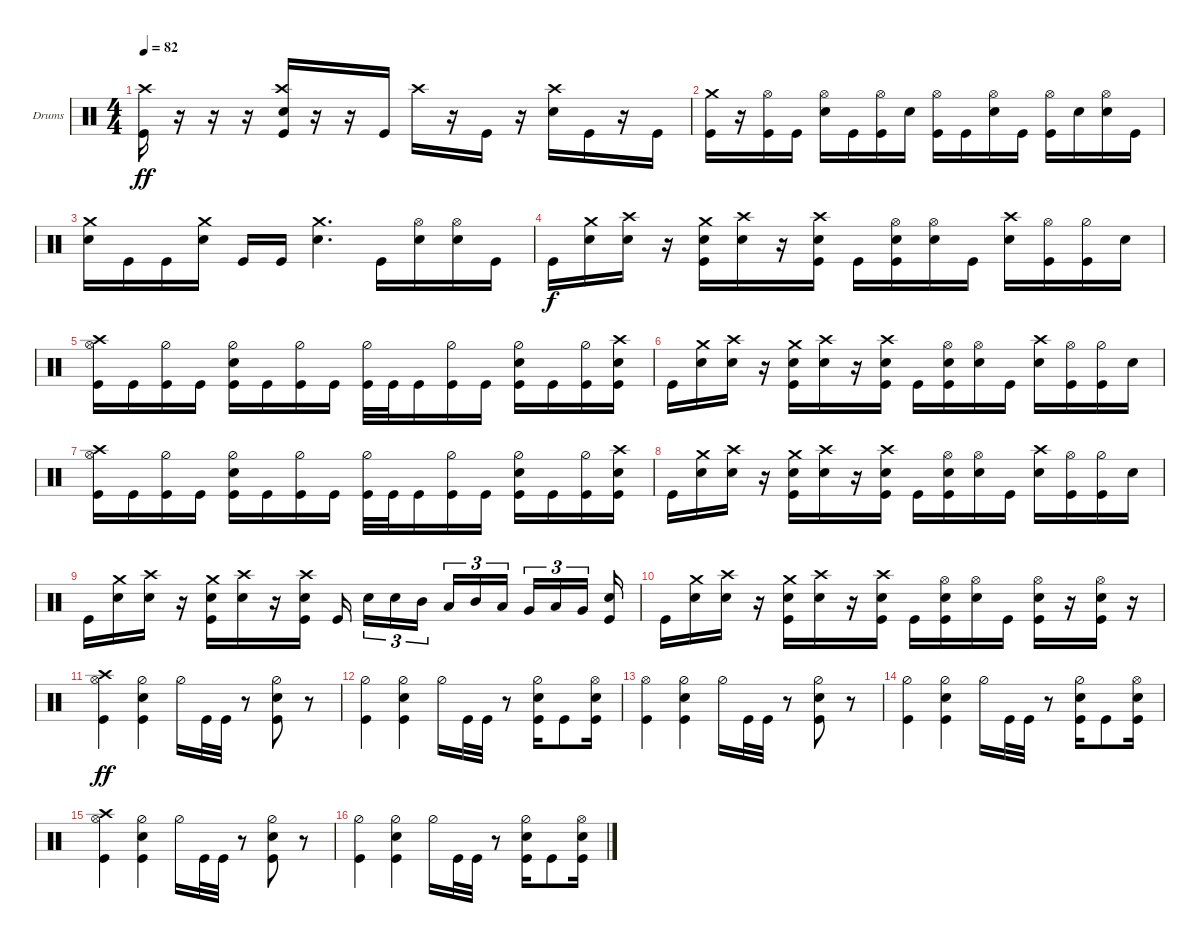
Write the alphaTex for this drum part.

\bracketExtendMode groupsimilarinstruments
\firstSystemTrackNameOrientation horizontal
\otherSystemsTrackNameOrientation horizontal
\track ("Kaleb - Drums" "Drums") {instrument percussion}
\staff {score}
\articulation defaults
\ts (4 4)
\tempo 82
\clef neutral
\ks c
("Kick (hit)" "Crash high (hit)").16{dy ff} r.16 r.16 r.16 ("Kick (hit)" "Crash high (hit)" "Snare (hit) 2").16 r.16 r.16 "Kick (hit)".16 "Crash high (hit)".16 r.16 "Kick (hit)".16 r.16 ("Crash high (hit)" "Snare (hit) 2").16 "Kick (hit)".16 r.16 "Kick (hit)".16 |
("Crash medium (hit)" "Kick (hit)").16 r.16 ("Kick (hit)" "Hi-Hat (open)").16 "Kick (hit)".16 ("Snare (hit) 2" "Hi-Hat (open)").16 "Kick (hit)".16 ("Kick (hit)" "Hi-Hat (open)").16 "Snare (hit) 2".16 ("Kick (hit)" "Hi-Hat (open)").16 "Kick (hit)".16 ("Snare (hit) 2" "Hi-Hat (open)").16 "Kick (hit)".16 ("Kick (hit)" "Hi-Hat (open)").16 "Snare (hit) 2".16 ("Snare (hit) 2" "Hi-Hat (open)").16 "Kick (hit)".16 |
("Crash medium (hit)" "Snare (hit) 2").16 "Kick (hit)".16 "Kick (hit)".16 ("Crash medium (hit)" "Snare (hit) 2").16 "Kick (hit)".16 "Kick (hit)".16 ("Crash medium (hit)" "Snare (hit) 2").4{d} "Kick (hit)".16 ("Snare (hit) 2" "Hi-Hat (open)").16 ("Snare (hit) 2" "Hi-Hat (open)").16 "Kick (hit)".16 |
"Kick (hit)".16{dy f} ("Snare (hit) 2" "Crash medium (hit)").16 ("Snare (hit) 2" "Crash high (hit)").16 r.16 ("Snare (hit) 2" "Crash medium (hit)" "Kick (hit)").16 ("Snare (hit) 2" "Crash high (hit)").16 r.16 ("Snare (hit) 2" "Crash high (hit)" "Kick (hit)").16 "Kick (hit)".16 ("Snare (hit) 2" "Hi-Hat (open)" "Kick (hit)").16 ("Snare (hit) 2" "Hi-Hat (open)").16 "Kick (hit)".16 ("Snare (hit) 2" "Crash high (hit)").16 ("Kick (hit)" "Hi-Hat (open)").16 ("Kick (hit)" "Hi-Hat (half)").16 "Snare (hit) 2".16 |
("Kick (hit)" "Hi-Hat (open)" "Crash high (hit)").16 "Kick (hit)".16 ("Kick (hit)" "Hi-Hat (half)").16 "Kick (hit)".16 ("Kick (hit)" "Snare (hit) 2" "Hi-Hat (half)").16 "Kick (hit)".16 ("Kick (hit)" "Hi-Hat (half)").16 "Kick (hit)".16 ("Kick (hit)" "Hi-Hat (half)").32 "Kick (hit)".32 "Kick (hit)".16 ("Kick (hit)" "Hi-Hat (half)").16 "Kick (hit)".16 ("Kick (hit)" "Snare (hit) 2" "Hi-Hat (half)").16 "Kick (hit)".16 ("Kick (hit)" "Hi-Hat (half)").16 ("Kick (hit)" "Snare (hit) 2" "Crash high (hit)").16 |
"Kick (hit)".16 ("Snare (hit) 2" "Crash medium (hit)").16 ("Snare (hit) 2" "Crash high (hit)").16 r.16 ("Snare (hit) 2" "Crash medium (hit)" "Kick (hit)").16 ("Snare (hit) 2" "Crash high (hit)").16 r.16 ("Snare (hit) 2" "Crash high (hit)" "Kick (hit)").16 "Kick (hit)".16 ("Snare (hit) 2" "Hi-Hat (open)" "Kick (hit)").16 ("Snare (hit) 2" "Hi-Hat (open)").16 "Kick (hit)".16 ("Snare (hit) 2" "Crash high (hit)").16 ("Kick (hit)" "Hi-Hat (open)").16 ("Kick (hit)" "Hi-Hat (half)").16 "Snare (hit) 2".16 |
("Kick (hit)" "Hi-Hat (open)" "Crash high (hit)").16 "Kick (hit)".16 ("Kick (hit)" "Hi-Hat (half)").16 "Kick (hit)".16 ("Kick (hit)" "Snare (hit) 2" "Hi-Hat (half)").16 "Kick (hit)".16 ("Kick (hit)" "Hi-Hat (half)").16 "Kick (hit)".16 ("Kick (hit)" "Hi-Hat (half)").32 "Kick (hit)".32 "Kick (hit)".16 ("Kick (hit)" "Hi-Hat (half)").16 "Kick (hit)".16 ("Kick (hit)" "Snare (hit) 2" "Hi-Hat (half)").16 "Kick (hit)".16 ("Kick (hit)" "Hi-Hat (half)").16 ("Kick (hit)" "Snare (hit) 2" "Crash high (hit)").16 |
"Kick (hit)".16 ("Snare (hit) 2" "Crash medium (hit)").16 ("Snare (hit) 2" "Crash high (hit)").16 r.16 ("Snare (hit) 2" "Crash medium (hit)" "Kick (hit)").16 ("Snare (hit) 2" "Crash high (hit)").16 r.16 ("Snare (hit) 2" "Crash high (hit)" "Kick (hit)").16 "Kick (hit)".16 ("Snare (hit) 2" "Hi-Hat (open)" "Kick (hit)").16 ("Snare (hit) 2" "Hi-Hat (open)").16 "Kick (hit)".16 ("Snare (hit) 2" "Crash high (hit)").16 ("Kick (hit)" "Hi-Hat (open)").16 ("Kick (hit)" "Hi-Hat (half)").16 "Snare (hit) 2".16 |
"Kick (hit)".16 ("Snare (hit) 2" "Crash medium (hit)").16 ("Snare (hit) 2" "Crash high (hit)").16 r.16 ("Snare (hit) 2" "Crash medium (hit)" "Kick (hit)").16 ("Snare (hit) 2" "Crash high (hit)").16 r.16 ("Snare (hit) 2" "Crash high (hit)" "Kick (hit)").16 "Kick (hit)".16 "Snare (hit) 2".16{tu (3 2)} "Snare (hit) 2".16{tu (3 2)} "Mid Tom (hit)".16{tu (3 2)} "Low Tom (hit)".16{tu (3 2)} "Mid Tom (hit)".16{tu (3 2)} "Low Tom (hit)".16{tu (3 2)} "Very Low Tom (hit)".16{tu (3 2)} "Low Tom (hit)".16{tu (3 2)} "Very Low Tom (hit)".16{tu (3 2)} ("Kick (hit)" "Snare (hit) 2").16 |
"Kick (hit)".16 ("Snare (hit) 2" "Crash medium (hit)").16 ("Snare (hit) 2" "Crash high (hit)").16 r.16 ("Snare (hit) 2" "Crash medium (hit)" "Kick (hit)").16 ("Snare (hit) 2" "Crash high (hit)").16 r.16 ("Snare (hit) 2" "Crash high (hit)" "Kick (hit)").16 "Kick (hit)".16 ("Snare (hit) 2" "Hi-Hat (open)" "Kick (hit)").16 ("Snare (hit) 2" "Hi-Hat (open)").16 "Kick (hit)".16 ("Hi-Hat (open)" "Snare (hit) 2" "Kick (hit)").16 r.16 ("Hi-Hat (open)" "Snare (hit) 2" "Kick (hit)").16 r.16 |
("Kick (hit)" "Hi-Hat (open)" "Crash high (hit)").4{dy ff} ("Kick (hit)" "Snare (hit) 2" "Hi-Hat (half)").4 "Hi-Hat (half)".16 "Kick (hit)".32 "Kick (hit)".32 r.8 ("Kick (hit)" "Snare (hit) 2" "Hi-Hat (half)").8 r.8 |
("Kick (hit)" "Hi-Hat (half)").4 ("Kick (hit)" "Snare (hit) 2" "Hi-Hat (half)").4 "Hi-Hat (half)".16 "Kick (hit)".32 "Kick (hit)".32 r.8 ("Kick (hit)" "Snare (hit) 2" "Hi-Hat (half)").16 "Kick (hit)".8 ("Kick (hit)" "Snare (hit) 2" "Hi-Hat (open)").16 |
("Kick (hit)" "Hi-Hat (open)").4 ("Kick (hit)" "Snare (hit) 2" "Hi-Hat (half)").4 "Hi-Hat (half)".16 "Kick (hit)".32 "Kick (hit)".32 r.8 ("Kick (hit)" "Snare (hit) 2" "Hi-Hat (half)").8 r.8 |
("Kick (hit)" "Hi-Hat (half)").4 ("Kick (hit)" "Snare (hit) 2" "Hi-Hat (half)").4 "Hi-Hat (half)".16 "Kick (hit)".32 "Kick (hit)".32 r.8 ("Kick (hit)" "Snare (hit) 2" "Hi-Hat (half)").16 "Kick (hit)".8 ("Kick (hit)" "Snare (hit) 2" "Hi-Hat (open)").16 |
("Kick (hit)" "Hi-Hat (open)" "Crash high (hit)").4 ("Kick (hit)" "Snare (hit) 2" "Hi-Hat (half)").4 "Hi-Hat (half)".16 "Kick (hit)".32 "Kick (hit)".32 r.8 ("Kick (hit)" "Snare (hit) 2" "Hi-Hat (half)").8 r.8 |
("Kick (hit)" "Hi-Hat (half)").4 ("Kick (hit)" "Snare (hit) 2" "Hi-Hat (half)").4 "Hi-Hat (half)".16 "Kick (hit)".32 "Kick (hit)".32 r.8 ("Kick (hit)" "Snare (hit) 2" "Hi-Hat (half)").16 "Kick (hit)".8 ("Kick (hit)" "Snare (hit) 2" "Hi-Hat (open)").16
